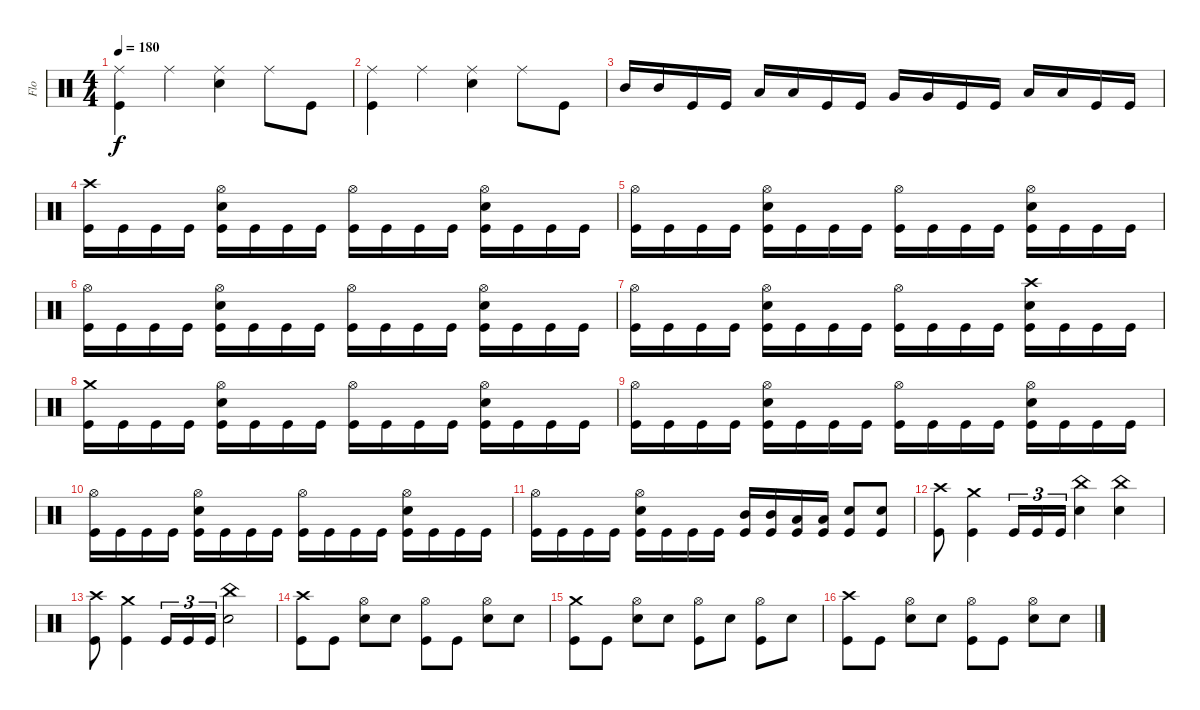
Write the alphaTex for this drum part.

\track ("Flo" "Flo") {instrument percussion}
\staff {score}
\articulation defaults
\ts (4 4)
\tempo 180
\clef neutral
\ks c
("Ride (middle)" "Kick (hit)").4{dy f} "Ride (middle)".4 ("Ride (middle)" "Snare (hit) 2").4 "Ride (middle)".8 "Kick (hit)".8 |
("Ride (middle)" "Kick (hit)").4 "Ride (middle)".4 ("Ride (middle)" "Snare (hit) 2").4 "Ride (middle)".8 "Kick (hit)".8 |
"Mid Tom (hit)".16 "Mid Tom (hit)".16 "Kick (hit)".16 "Kick (hit)".16 "Low Tom (hit)".16 "Low Tom (hit)".16 "Kick (hit)".16 "Kick (hit)".16 "Very Low Tom (hit)".16 "Very Low Tom (hit)".16 "Kick (hit)".16 "Kick (hit)".16 "Low Floor Tom (hit)".16 "Low Floor Tom (hit)".16 "Kick (hit)".16 "Kick (hit)".16 |
("Crash high (hit)" "Kick (hit)").16 "Kick (hit)".16 "Kick (hit)".16 "Kick (hit)".16 ("Hi-Hat (open)" "Snare (hit) 2" "Kick (hit)").16 "Kick (hit)".16 "Kick (hit)".16 "Kick (hit)".16 ("Hi-Hat (open)" "Kick (hit)").16 "Kick (hit)".16 "Kick (hit)".16 "Kick (hit)".16 ("Hi-Hat (open)" "Snare (hit) 2" "Kick (hit)").16 "Kick (hit)".16 "Kick (hit)".16 "Kick (hit)".16 |
("Hi-Hat (open)" "Kick (hit)").16 "Kick (hit)".16 "Kick (hit)".16 "Kick (hit)".16 ("Hi-Hat (open)" "Snare (hit) 2" "Kick (hit)").16 "Kick (hit)".16 "Kick (hit)".16 "Kick (hit)".16 ("Hi-Hat (open)" "Kick (hit)").16 "Kick (hit)".16 "Kick (hit)".16 "Kick (hit)".16 ("Hi-Hat (open)" "Snare (hit) 2" "Kick (hit)").16 "Kick (hit)".16 "Kick (hit)".16 "Kick (hit)".16 |
("Hi-Hat (open)" "Kick (hit)").16 "Kick (hit)".16 "Kick (hit)".16 "Kick (hit)".16 ("Hi-Hat (open)" "Snare (hit) 2" "Kick (hit)").16 "Kick (hit)".16 "Kick (hit)".16 "Kick (hit)".16 ("Hi-Hat (open)" "Kick (hit)").16 "Kick (hit)".16 "Kick (hit)".16 "Kick (hit)".16 ("Hi-Hat (open)" "Snare (hit) 2" "Kick (hit)").16 "Kick (hit)".16 "Kick (hit)".16 "Kick (hit)".16 |
("Hi-Hat (open)" "Kick (hit)").16 "Kick (hit)".16 "Kick (hit)".16 "Kick (hit)".16 ("Hi-Hat (open)" "Snare (hit) 2" "Kick (hit)").16 "Kick (hit)".16 "Kick (hit)".16 "Kick (hit)".16 ("Hi-Hat (open)" "Kick (hit)").16 "Kick (hit)".16 "Kick (hit)".16 "Kick (hit)".16 ("Crash high (hit)" "Snare (hit) 2" "Kick (hit)").16 "Kick (hit)".16 "Kick (hit)".16 "Kick (hit)".16 |
("Crash medium (hit)" "Kick (hit)").16 "Kick (hit)".16 "Kick (hit)".16 "Kick (hit)".16 ("Hi-Hat (open)" "Snare (hit) 2" "Kick (hit)").16 "Kick (hit)".16 "Kick (hit)".16 "Kick (hit)".16 ("Hi-Hat (open)" "Kick (hit)").16 "Kick (hit)".16 "Kick (hit)".16 "Kick (hit)".16 ("Hi-Hat (open)" "Snare (hit) 2" "Kick (hit)").16 "Kick (hit)".16 "Kick (hit)".16 "Kick (hit)".16 |
("Hi-Hat (open)" "Kick (hit)").16 "Kick (hit)".16 "Kick (hit)".16 "Kick (hit)".16 ("Hi-Hat (open)" "Snare (hit) 2" "Kick (hit)").16 "Kick (hit)".16 "Kick (hit)".16 "Kick (hit)".16 ("Hi-Hat (open)" "Kick (hit)").16 "Kick (hit)".16 "Kick (hit)".16 "Kick (hit)".16 ("Hi-Hat (open)" "Snare (hit) 2" "Kick (hit)").16 "Kick (hit)".16 "Kick (hit)".16 "Kick (hit)".16 |
("Hi-Hat (open)" "Kick (hit)").16 "Kick (hit)".16 "Kick (hit)".16 "Kick (hit)".16 ("Hi-Hat (open)" "Snare (hit) 2" "Kick (hit)").16 "Kick (hit)".16 "Kick (hit)".16 "Kick (hit)".16 ("Hi-Hat (open)" "Kick (hit)").16 "Kick (hit)".16 "Kick (hit)".16 "Kick (hit)".16 ("Hi-Hat (open)" "Snare (hit) 2" "Kick (hit)").16 "Kick (hit)".16 "Kick (hit)".16 "Kick (hit)".16 |
("Hi-Hat (open)" "Kick (hit)").16 "Kick (hit)".16 "Kick (hit)".16 "Kick (hit)".16 ("Hi-Hat (open)" "Snare (hit) 2" "Kick (hit)").16 "Kick (hit)".16 "Kick (hit)".16 "Kick (hit)".16 ("Mid Tom (hit)" "Kick (hit)").16 ("Mid Tom (hit)" "Kick (hit)").16 ("Low Tom (hit)" "Kick (hit)").16 ("Low Tom (hit)" "Kick (hit)").16 ("Snare (hit) 2" "Kick (hit)").8 ("Snare (hit) 2" "Kick (hit)").8 |
("Crash high (hit)" "Kick (hit)").8 ("Crash medium (hit)" "Kick (hit)").4 "Kick (hit)".16{tu (3 2)} "Kick (hit)".16{tu (3 2)} "Kick (hit)".16{tu (3 2)} ("China (hit)" "Snare (hit) 2").4 ("China (hit)" "Snare (hit) 2").4 |
("Crash high (hit)" "Kick (hit)").8 ("Crash medium (hit)" "Kick (hit)").4 "Kick (hit)".16{tu (3 2)} "Kick (hit)".16{tu (3 2)} "Kick (hit)".16{tu (3 2)} ("China (hit)" "Snare (hit) 2").2 |
("Crash high (hit)" "Kick (hit)").8 "Kick (hit)".8 ("Hi-Hat (open)" "Snare (hit) 2").8 "Snare (hit) 2".8 ("Hi-Hat (open)" "Kick (hit)").8 "Kick (hit)".8 ("Hi-Hat (open)" "Snare (hit) 2").8 "Snare (hit) 2".8 |
("Crash medium (hit)" "Kick (hit)").8 "Kick (hit)".8 ("Hi-Hat (open)" "Snare (hit) 2").8 "Snare (hit) 2".8 ("Hi-Hat (open)" "Kick (hit)").8 "Snare (hit) 2".8 ("Hi-Hat (open)" "Kick (hit)").8 "Snare (hit) 2".8 |
("Crash high (hit)" "Kick (hit)").8 "Kick (hit)".8 ("Hi-Hat (open)" "Snare (hit) 2").8 "Snare (hit) 2".8 ("Hi-Hat (open)" "Kick (hit)").8 "Kick (hit)".8 ("Hi-Hat (open)" "Snare (hit) 2").8 "Snare (hit) 2".8
